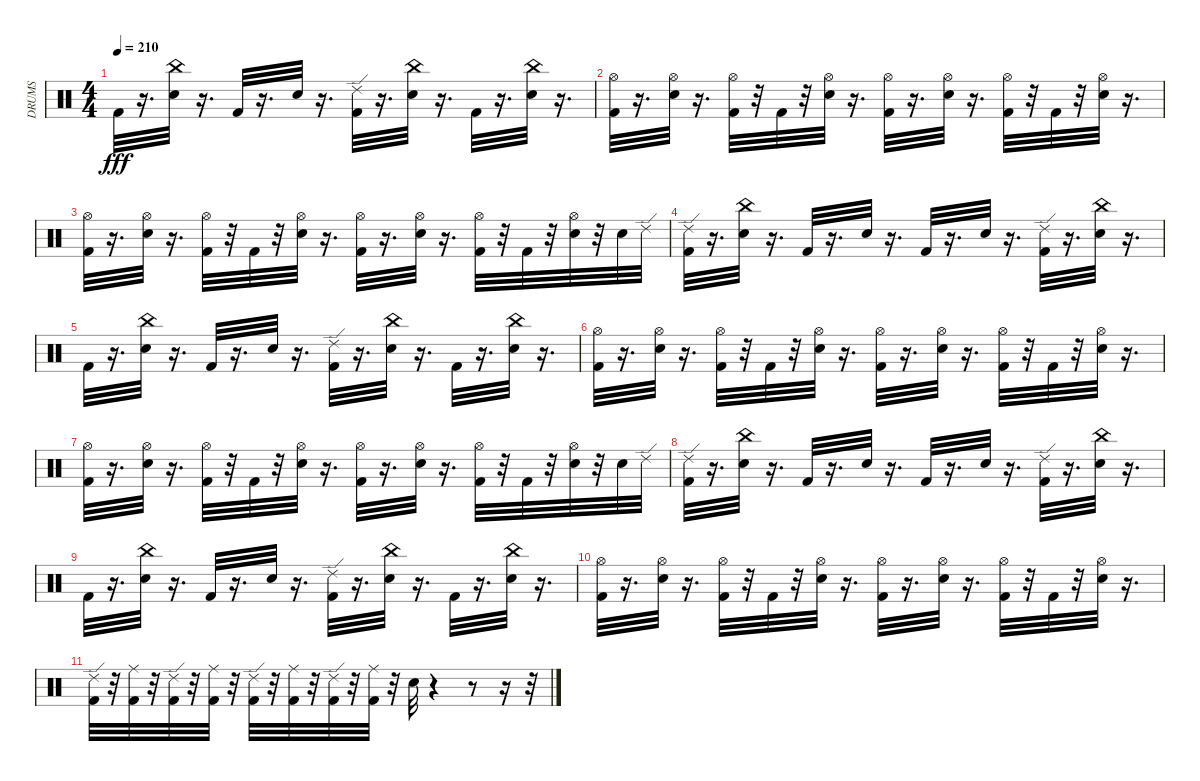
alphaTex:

\track ("DRUMS" "DRUMS") {instrument percussion}
\staff {score}
\articulation defaults
\ts (4 4)
\tempo 210
\clef neutral
\ks c "Kick (hit) 2".32{dy fff}
r.16{d} ("China (hit)" "Electric Snare (hit)").32 r.16{d} "Kick (hit) 2".32 r.16{d} "Electric Snare (hit)".32 r.16{d} ("Ride (edge) 2" "Kick (hit) 2").32 r.16{d} ("China (hit)" "Electric Snare (hit)").32 r.16{d} "Kick (hit) 2".32 r.16{d} ("China (hit)" "Electric Snare (hit)").32 r.16{d} |
("Hi-Hat (open)" "Kick (hit) 2").32 r.16{d} ("Hi-Hat (open)" "Electric Snare (hit)").32 r.16{d} ("Hi-Hat (open)" "Kick (hit) 2").32 r.32 "Kick (hit) 2".32 r.32 ("Hi-Hat (open)" "Electric Snare (hit)").32 r.16{d} ("Hi-Hat (open)" "Kick (hit) 2").32 r.16{d} ("Hi-Hat (open)" "Electric Snare (hit)").32 r.16{d} ("Hi-Hat (open)" "Kick (hit) 2").32 r.32 "Kick (hit) 2".32 r.32 ("Hi-Hat (open)" "Electric Snare (hit)").32 r.16{d} |
("Hi-Hat (open)" "Kick (hit) 2").32 r.16{d} ("Hi-Hat (open)" "Electric Snare (hit)").32 r.16{d} ("Hi-Hat (open)" "Kick (hit) 2").32 r.32 "Kick (hit) 2".32 r.32 ("Hi-Hat (open)" "Electric Snare (hit)").32 r.16{d} ("Hi-Hat (open)" "Kick (hit) 2").32 r.16{d} ("Hi-Hat (open)" "Electric Snare (hit)").32 r.16{d} ("Hi-Hat (open)" "Kick (hit) 2").32 r.32 "Kick (hit) 2".32 r.32 ("Hi-Hat (open)" "Electric Snare (hit)").32 r.32 "Electric Snare (hit)".32 "Ride (edge) 2".32 |
("Ride (edge) 2" "Kick (hit) 2").32 r.16{d} ("China (hit)" "Electric Snare (hit)").32 r.16{d} "Kick (hit) 2".32 r.16{d} "Electric Snare (hit)".32 r.16{d} "Kick (hit) 2".32 r.16{d} "Electric Snare (hit)".32 r.16{d} ("Ride (edge) 2" "Kick (hit) 2").32 r.16{d} ("China (hit)" "Electric Snare (hit)").32 r.16{d} |
"Kick (hit) 2".32 r.16{d} ("China (hit)" "Electric Snare (hit)").32 r.16{d} "Kick (hit) 2".32 r.16{d} "Electric Snare (hit)".32 r.16{d} ("Ride (edge) 2" "Kick (hit) 2").32 r.16{d} ("China (hit)" "Electric Snare (hit)").32 r.16{d} "Kick (hit) 2".32 r.16{d} ("China (hit)" "Electric Snare (hit)").32 r.16{d} |
("Hi-Hat (open)" "Kick (hit) 2").32 r.16{d} ("Hi-Hat (open)" "Electric Snare (hit)").32 r.16{d} ("Hi-Hat (open)" "Kick (hit) 2").32 r.32 "Kick (hit) 2".32 r.32 ("Hi-Hat (open)" "Electric Snare (hit)").32 r.16{d} ("Hi-Hat (open)" "Kick (hit) 2").32 r.16{d} ("Hi-Hat (open)" "Electric Snare (hit)").32 r.16{d} ("Hi-Hat (open)" "Kick (hit) 2").32 r.32 "Kick (hit) 2".32 r.32 ("Hi-Hat (open)" "Electric Snare (hit)").32 r.16{d} |
("Hi-Hat (open)" "Kick (hit) 2").32 r.16{d} ("Hi-Hat (open)" "Electric Snare (hit)").32 r.16{d} ("Hi-Hat (open)" "Kick (hit) 2").32 r.32 "Kick (hit) 2".32 r.32 ("Hi-Hat (open)" "Electric Snare (hit)").32 r.16{d} ("Hi-Hat (open)" "Kick (hit) 2").32 r.16{d} ("Hi-Hat (open)" "Electric Snare (hit)").32 r.16{d} ("Hi-Hat (open)" "Kick (hit) 2").32 r.32 "Kick (hit) 2".32 r.32 ("Hi-Hat (open)" "Electric Snare (hit)").32 r.32 "Electric Snare (hit)".32 "Ride (edge) 2".32 |
("Ride (edge) 2" "Kick (hit) 2").32 r.16{d} ("China (hit)" "Electric Snare (hit)").32 r.16{d} "Kick (hit) 2".32 r.16{d} "Electric Snare (hit)".32 r.16{d} "Kick (hit) 2".32 r.16{d} "Electric Snare (hit)".32 r.16{d} ("Ride (edge) 2" "Kick (hit) 2").32 r.16{d} ("China (hit)" "Electric Snare (hit)").32 r.16{d} |
"Kick (hit) 2".32 r.16{d} ("China (hit)" "Electric Snare (hit)").32 r.16{d} "Kick (hit) 2".32 r.16{d} "Electric Snare (hit)".32 r.16{d} ("Ride (edge) 2" "Kick (hit) 2").32 r.16{d} ("China (hit)" "Electric Snare (hit)").32 r.16{d} "Kick (hit) 2".32 r.16{d} ("China (hit)" "Electric Snare (hit)").32 r.16{d} |
("Hi-Hat (open)" "Kick (hit) 2").32 r.16{d} ("Hi-Hat (open)" "Electric Snare (hit)").32 r.16{d} ("Hi-Hat (open)" "Kick (hit) 2").32 r.32 "Kick (hit) 2".32 r.32 ("Hi-Hat (open)" "Electric Snare (hit)").32 r.16{d} ("Hi-Hat (open)" "Kick (hit) 2").32 r.16{d} ("Hi-Hat (open)" "Electric Snare (hit)").32 r.16{d} ("Hi-Hat (open)" "Kick (hit) 2").32 r.32 "Kick (hit) 2".32 r.32 ("Hi-Hat (open)" "Electric Snare (hit)").32 r.16{d} |
("Ride (edge) 2" "Kick (hit) 2").32 r.32 ("Kick (hit) 2" "Ride (middle)").32 r.32 ("Ride (edge) 2" "Kick (hit) 2").32 r.32 ("Kick (hit) 2" "Ride (middle)").32 r.32 ("Ride (edge) 2" "Kick (hit) 2").32 r.32 ("Kick (hit) 2" "Ride (middle)").32 r.32 ("Ride (edge) 2" "Kick (hit) 2").32 r.32 ("Kick (hit) 2" "Ride (middle)").32 r.32 "Electric Snare (hit)".32 r.4 r.8 r.16 r.32
